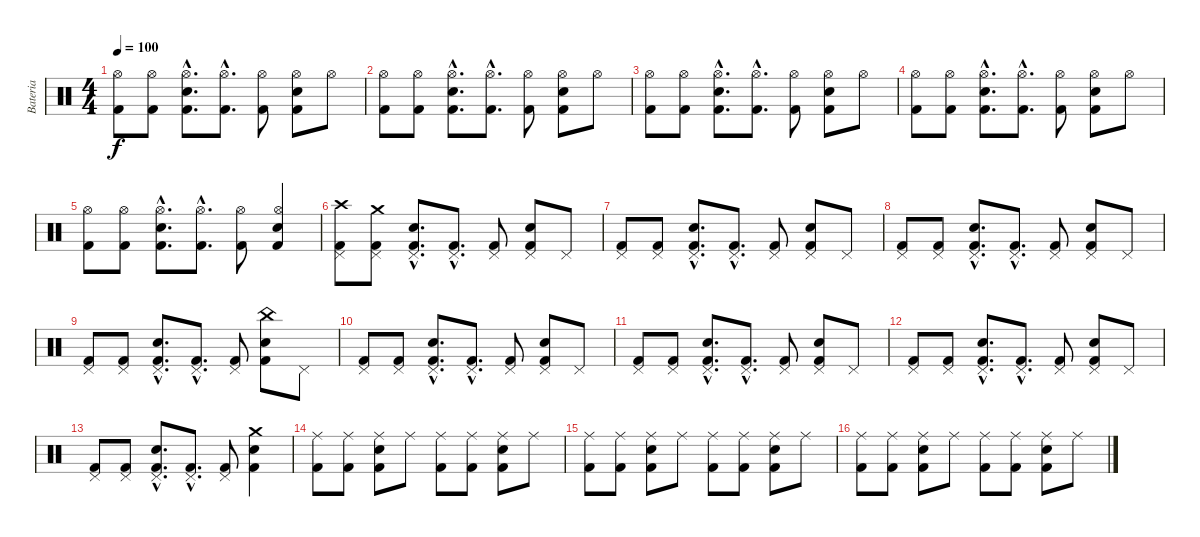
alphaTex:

\track ("Bateria" "Bateria") {instrument percussion}
\staff {score}
\articulation defaults
\ts (4 4)
\tempo 100
\clef neutral
\ks c
("Kick (hit) 2" "Hi-Hat (open)").8{dy f} ("Kick (hit) 2" "Hi-Hat (open)").8 ("Kick (hit) 2"{hac} "Electric Snare (hit)"{hac} "Hi-Hat (open)"{hac}).8{d} ("Kick (hit) 2"{hac} "Hi-Hat (open)"{hac}).8{d} ("Kick (hit) 2" "Hi-Hat (open)").8 ("Kick (hit) 2" "Electric Snare (hit)" "Hi-Hat (open)").8 "Hi-Hat (open)".8 |
("Kick (hit) 2" "Hi-Hat (open)").8 ("Kick (hit) 2" "Hi-Hat (open)").8 ("Kick (hit) 2"{hac} "Electric Snare (hit)"{hac} "Hi-Hat (open)"{hac}).8{d} ("Kick (hit) 2"{hac} "Hi-Hat (open)"{hac}).8{d} ("Kick (hit) 2" "Hi-Hat (open)").8 ("Kick (hit) 2" "Electric Snare (hit)" "Hi-Hat (open)").8 "Hi-Hat (open)".8 |
("Kick (hit) 2" "Hi-Hat (open)").8 ("Kick (hit) 2" "Hi-Hat (open)").8 ("Kick (hit) 2"{hac} "Electric Snare (hit)"{hac} "Hi-Hat (open)"{hac}).8{d} ("Kick (hit) 2"{hac} "Hi-Hat (open)"{hac}).8{d} ("Kick (hit) 2" "Hi-Hat (open)").8 ("Kick (hit) 2" "Electric Snare (hit)" "Hi-Hat (open)").8 "Hi-Hat (open)".8 |
("Kick (hit) 2" "Hi-Hat (open)").8 ("Kick (hit) 2" "Hi-Hat (open)").8 ("Kick (hit) 2"{hac} "Electric Snare (hit)"{hac} "Hi-Hat (open)"{hac}).8{d} ("Kick (hit) 2"{hac} "Hi-Hat (open)"{hac}).8{d} ("Kick (hit) 2" "Hi-Hat (open)").8 ("Kick (hit) 2" "Electric Snare (hit)" "Hi-Hat (open)").8 "Hi-Hat (open)".8 |
("Kick (hit) 2" "Hi-Hat (open)").8 ("Kick (hit) 2" "Hi-Hat (open)").8 ("Kick (hit) 2"{hac} "Electric Snare (hit)"{hac} "Hi-Hat (open)"{hac}).8{d} ("Kick (hit) 2"{hac} "Hi-Hat (open)"{hac}).8{d} ("Kick (hit) 2" "Hi-Hat (open)").8 ("Kick (hit) 2" "Electric Snare (hit)" "Hi-Hat (open)").4 |
("Kick (hit) 2" "Crash high (hit)" "Pedal Hi-Hat (hit)").8 ("Kick (hit) 2" "Crash medium (hit)" "Pedal Hi-Hat (hit)").8 ("Kick (hit) 2"{hac} "Electric Snare (hit)"{hac} "Pedal Hi-Hat (hit)"{hac}).8{d} ("Kick (hit) 2"{hac} "Pedal Hi-Hat (hit)"{hac}).8{d} ("Kick (hit) 2" "Pedal Hi-Hat (hit)").8 ("Kick (hit) 2" "Electric Snare (hit)" "Pedal Hi-Hat (hit)").8 "Pedal Hi-Hat (hit)".8 |
("Kick (hit) 2" "Pedal Hi-Hat (hit)").8 ("Kick (hit) 2" "Pedal Hi-Hat (hit)").8 ("Kick (hit) 2"{hac} "Electric Snare (hit)"{hac} "Pedal Hi-Hat (hit)"{hac}).8{d} ("Kick (hit) 2"{hac} "Pedal Hi-Hat (hit)"{hac}).8{d} ("Kick (hit) 2" "Pedal Hi-Hat (hit)").8 ("Kick (hit) 2" "Electric Snare (hit)" "Pedal Hi-Hat (hit)").8 "Pedal Hi-Hat (hit)".8 |
("Kick (hit) 2" "Pedal Hi-Hat (hit)").8 ("Kick (hit) 2" "Pedal Hi-Hat (hit)").8 ("Kick (hit) 2"{hac} "Electric Snare (hit)"{hac} "Pedal Hi-Hat (hit)"{hac}).8{d} ("Kick (hit) 2"{hac} "Pedal Hi-Hat (hit)"{hac}).8{d} ("Kick (hit) 2" "Pedal Hi-Hat (hit)").8 ("Kick (hit) 2" "Electric Snare (hit)" "Pedal Hi-Hat (hit)").8 "Pedal Hi-Hat (hit)".8 |
("Kick (hit) 2" "Pedal Hi-Hat (hit)").8 ("Kick (hit) 2" "Pedal Hi-Hat (hit)").8 ("Kick (hit) 2"{hac} "Electric Snare (hit)"{hac} "Pedal Hi-Hat (hit)"{hac}).8{d} ("Kick (hit) 2"{hac} "Pedal Hi-Hat (hit)"{hac}).8{d} ("Kick (hit) 2" "Pedal Hi-Hat (hit)").8 ("Kick (hit) 2" "Electric Snare (hit)" "China (hit)").8 "Pedal Hi-Hat (hit)".8 |
("Kick (hit) 2" "Pedal Hi-Hat (hit)").8 ("Kick (hit) 2" "Pedal Hi-Hat (hit)").8 ("Kick (hit) 2"{hac} "Electric Snare (hit)"{hac} "Pedal Hi-Hat (hit)"{hac}).8{d} ("Kick (hit) 2"{hac} "Pedal Hi-Hat (hit)"{hac}).8{d} ("Kick (hit) 2" "Pedal Hi-Hat (hit)").8 ("Kick (hit) 2" "Electric Snare (hit)" "Pedal Hi-Hat (hit)").8 "Pedal Hi-Hat (hit)".8 |
("Kick (hit) 2" "Pedal Hi-Hat (hit)").8 ("Kick (hit) 2" "Pedal Hi-Hat (hit)").8 ("Kick (hit) 2"{hac} "Electric Snare (hit)"{hac} "Pedal Hi-Hat (hit)"{hac}).8{d} ("Kick (hit) 2"{hac} "Pedal Hi-Hat (hit)"{hac}).8{d} ("Kick (hit) 2" "Pedal Hi-Hat (hit)").8 ("Kick (hit) 2" "Electric Snare (hit)" "Pedal Hi-Hat (hit)").8 "Pedal Hi-Hat (hit)".8 |
("Kick (hit) 2" "Pedal Hi-Hat (hit)").8 ("Kick (hit) 2" "Pedal Hi-Hat (hit)").8 ("Kick (hit) 2"{hac} "Electric Snare (hit)"{hac} "Pedal Hi-Hat (hit)"{hac}).8{d} ("Kick (hit) 2"{hac} "Pedal Hi-Hat (hit)"{hac}).8{d} ("Kick (hit) 2" "Pedal Hi-Hat (hit)").8 ("Kick (hit) 2" "Electric Snare (hit)" "Pedal Hi-Hat (hit)").8 "Pedal Hi-Hat (hit)".8 |
("Kick (hit) 2" "Pedal Hi-Hat (hit)").8 ("Kick (hit) 2" "Pedal Hi-Hat (hit)").8 ("Kick (hit) 2"{hac} "Electric Snare (hit)"{hac} "Pedal Hi-Hat (hit)"{hac}).8{d} ("Kick (hit) 2"{hac} "Pedal Hi-Hat (hit)"{hac}).8{d} ("Kick (hit) 2" "Pedal Hi-Hat (hit)").8 ("Kick (hit) 2" "Electric Snare (hit)" "Crash medium (hit)").4 |
("Kick (hit) 2" "Ride (middle)").8 ("Kick (hit) 2" "Ride (middle)").8 ("Kick (hit) 2" "Electric Snare (hit)" "Ride (middle)").8 "Ride (middle)".8 ("Kick (hit) 2" "Ride (middle)").8 ("Kick (hit) 2" "Ride (middle)").8 ("Kick (hit) 2" "Electric Snare (hit)" "Ride (middle)").8 "Ride (middle)".8 |
("Kick (hit) 2" "Ride (middle)").8 ("Kick (hit) 2" "Ride (middle)").8 ("Kick (hit) 2" "Electric Snare (hit)" "Ride (middle)").8 "Ride (middle)".8 ("Kick (hit) 2" "Ride (middle)").8 ("Kick (hit) 2" "Ride (middle)").8 ("Kick (hit) 2" "Electric Snare (hit)" "Ride (middle)").8 "Ride (middle)".8 |
("Kick (hit) 2" "Ride (middle)").8 ("Kick (hit) 2" "Ride (middle)").8 ("Kick (hit) 2" "Electric Snare (hit)" "Ride (middle)").8 "Ride (middle)".8 ("Kick (hit) 2" "Ride (middle)").8 ("Kick (hit) 2" "Ride (middle)").8 ("Kick (hit) 2" "Electric Snare (hit)" "Ride (middle)").8 "Ride (middle)".8
